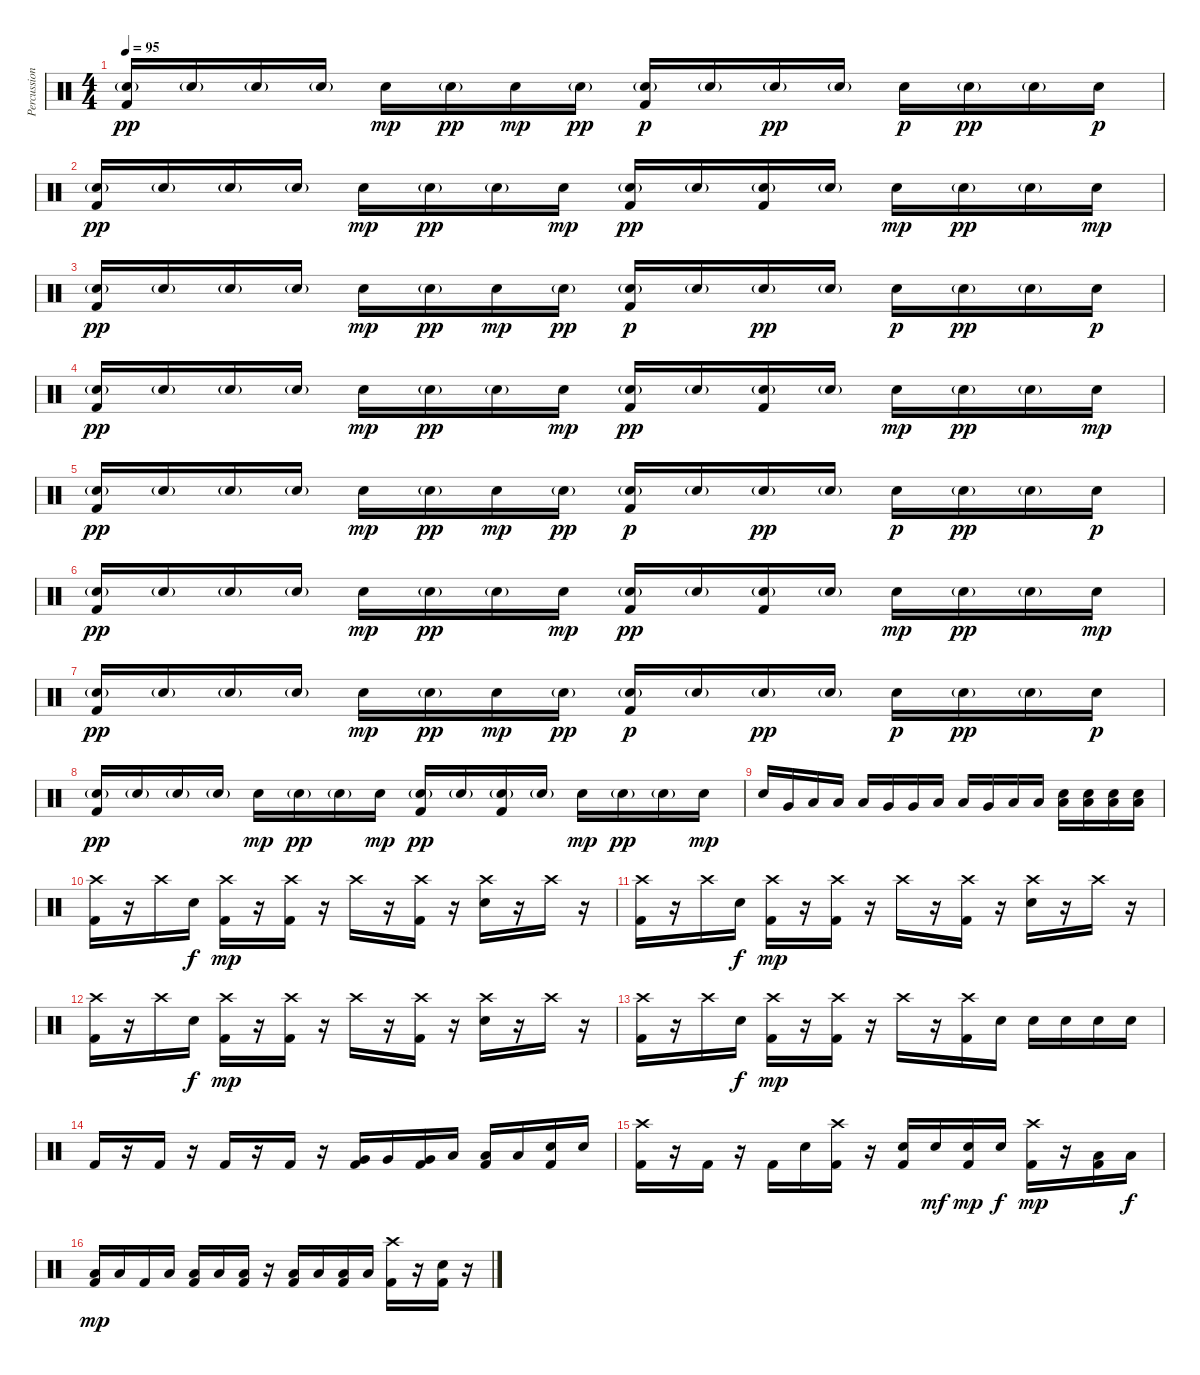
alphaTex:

\track ("Percussions" "Percussion") {instrument percussion}
\staff {score}
\articulation defaults
\ts (4 4)
\tempo 95
\clef neutral
\ks c
("Kick (hit) 2" "Snare (hit) 2"{g}).16{dy pp} "Snare (hit) 2"{g}.16 "Snare (hit) 2"{g}.16 "Snare (hit) 2"{g}.16 "Snare (hit) 2".16{dy mp} "Snare (hit) 2"{g}.16{dy pp} "Snare (hit) 2".16{dy mp} "Snare (hit) 2"{g}.16{dy pp} ("Kick (hit) 2" "Snare (hit) 2"{g}).16{dy p} "Snare (hit) 2"{g}.16 "Snare (hit) 2"{g}.16{dy pp} "Snare (hit) 2"{g}.16 "Snare (hit) 2".16{dy p} "Snare (hit) 2"{g}.16{dy pp} "Snare (hit) 2"{g}.16 "Snare (hit) 2".16{dy p} |
("Kick (hit) 2" "Snare (hit) 2"{g}).16{dy pp} "Snare (hit) 2"{g}.16 "Snare (hit) 2"{g}.16 "Snare (hit) 2"{g}.16 "Snare (hit) 2".16{dy mp} "Snare (hit) 2"{g}.16{dy pp} "Snare (hit) 2"{g}.16 "Snare (hit) 2".16{dy mp} ("Kick (hit) 2" "Snare (hit) 2"{g}).16{dy pp} "Snare (hit) 2"{g}.16 ("Kick (hit) 2" "Snare (hit) 2"{g}).16 "Snare (hit) 2"{g}.16 "Snare (hit) 2".16{dy mp} "Snare (hit) 2"{g}.16{dy pp} "Snare (hit) 2"{g}.16 "Snare (hit) 2".16{dy mp} |
("Kick (hit) 2" "Snare (hit) 2"{g}).16{dy pp} "Snare (hit) 2"{g}.16 "Snare (hit) 2"{g}.16 "Snare (hit) 2"{g}.16 "Snare (hit) 2".16{dy mp} "Snare (hit) 2"{g}.16{dy pp} "Snare (hit) 2".16{dy mp} "Snare (hit) 2"{g}.16{dy pp} ("Kick (hit) 2" "Snare (hit) 2"{g}).16{dy p} "Snare (hit) 2"{g}.16 "Snare (hit) 2"{g}.16{dy pp} "Snare (hit) 2"{g}.16 "Snare (hit) 2".16{dy p} "Snare (hit) 2"{g}.16{dy pp} "Snare (hit) 2"{g}.16 "Snare (hit) 2".16{dy p} |
("Kick (hit) 2" "Snare (hit) 2"{g}).16{dy pp} "Snare (hit) 2"{g}.16 "Snare (hit) 2"{g}.16 "Snare (hit) 2"{g}.16 "Snare (hit) 2".16{dy mp} "Snare (hit) 2"{g}.16{dy pp} "Snare (hit) 2"{g}.16 "Snare (hit) 2".16{dy mp} ("Kick (hit) 2" "Snare (hit) 2"{g}).16{dy pp} "Snare (hit) 2"{g}.16 ("Kick (hit) 2" "Snare (hit) 2"{g}).16 "Snare (hit) 2"{g}.16 "Snare (hit) 2".16{dy mp} "Snare (hit) 2"{g}.16{dy pp} "Snare (hit) 2"{g}.16 "Snare (hit) 2".16{dy mp} |
("Kick (hit) 2" "Snare (hit) 2"{g}).16{dy pp} "Snare (hit) 2"{g}.16 "Snare (hit) 2"{g}.16 "Snare (hit) 2"{g}.16 "Snare (hit) 2".16{dy mp} "Snare (hit) 2"{g}.16{dy pp} "Snare (hit) 2".16{dy mp} "Snare (hit) 2"{g}.16{dy pp} ("Kick (hit) 2" "Snare (hit) 2"{g}).16{dy p} "Snare (hit) 2"{g}.16 "Snare (hit) 2"{g}.16{dy pp} "Snare (hit) 2"{g}.16 "Snare (hit) 2".16{dy p} "Snare (hit) 2"{g}.16{dy pp} "Snare (hit) 2"{g}.16 "Snare (hit) 2".16{dy p} |
("Kick (hit) 2" "Snare (hit) 2"{g}).16{dy pp} "Snare (hit) 2"{g}.16 "Snare (hit) 2"{g}.16 "Snare (hit) 2"{g}.16 "Snare (hit) 2".16{dy mp} "Snare (hit) 2"{g}.16{dy pp} "Snare (hit) 2"{g}.16 "Snare (hit) 2".16{dy mp} ("Kick (hit) 2" "Snare (hit) 2"{g}).16{dy pp} "Snare (hit) 2"{g}.16 ("Kick (hit) 2" "Snare (hit) 2"{g}).16 "Snare (hit) 2"{g}.16 "Snare (hit) 2".16{dy mp} "Snare (hit) 2"{g}.16{dy pp} "Snare (hit) 2"{g}.16 "Snare (hit) 2".16{dy mp} |
("Kick (hit) 2" "Snare (hit) 2"{g}).16{dy pp} "Snare (hit) 2"{g}.16 "Snare (hit) 2"{g}.16 "Snare (hit) 2"{g}.16 "Snare (hit) 2".16{dy mp} "Snare (hit) 2"{g}.16{dy pp} "Snare (hit) 2".16{dy mp} "Snare (hit) 2"{g}.16{dy pp} ("Kick (hit) 2" "Snare (hit) 2"{g}).16{dy p} "Snare (hit) 2"{g}.16 "Snare (hit) 2"{g}.16{dy pp} "Snare (hit) 2"{g}.16 "Snare (hit) 2".16{dy p} "Snare (hit) 2"{g}.16{dy pp} "Snare (hit) 2"{g}.16 "Snare (hit) 2".16{dy p} |
("Kick (hit) 2" "Snare (hit) 2"{g}).16{dy pp} "Snare (hit) 2"{g}.16 "Snare (hit) 2"{g}.16 "Snare (hit) 2"{g}.16 "Snare (hit) 2".16{dy mp} "Snare (hit) 2"{g}.16{dy pp} "Snare (hit) 2"{g}.16 "Snare (hit) 2".16{dy mp} ("Kick (hit) 2" "Snare (hit) 2"{g}).16{dy pp} "Snare (hit) 2"{g}.16 ("Kick (hit) 2" "Snare (hit) 2"{g}).16 "Snare (hit) 2"{g}.16 "Snare (hit) 2".16{dy mp} "Snare (hit) 2"{g}.16{dy pp} "Snare (hit) 2"{g}.16 "Snare (hit) 2".16{dy mp} |
"Snare (hit) 2".16 "Very Low Tom (hit)".16 "Low Tom (hit)".16 "Low Tom (hit)".16 "Low Tom (hit)".16 "Very Low Tom (hit)".16 "Very Low Tom (hit)".16 "Low Tom (hit)".16 "Low Tom (hit)".16 "Very Low Tom (hit)".16 "Low Tom (hit)".16 "Low Tom (hit)".16 ("Low Tom (hit)" "Snare (hit) 2").16 ("Low Tom (hit)" "Snare (hit) 2").16 ("Low Tom (hit)" "Snare (hit) 2").16 ("Low Tom (hit)" "Snare (hit) 2").16 |
("Crash high (hit)" "Kick (hit) 2").16 r.16 "Crash high (hit)".16 "Snare (hit) 2".16{dy f} ("Crash high (hit)" "Kick (hit) 2").16{dy mp} r.16 ("Crash high (hit)" "Kick (hit) 2").16 r.16 "Crash high (hit)".16 r.16 ("Crash high (hit)" "Kick (hit) 2").16 r.16 ("Crash high (hit)" "Snare (hit) 2").16 r.16 "Crash high (hit)".16 r.16 |
("Crash high (hit)" "Kick (hit) 2").16 r.16 "Crash high (hit)".16 "Snare (hit) 2".16{dy f} ("Crash high (hit)" "Kick (hit) 2").16{dy mp} r.16 ("Crash high (hit)" "Kick (hit) 2").16 r.16 "Crash high (hit)".16 r.16 ("Crash high (hit)" "Kick (hit) 2").16 r.16 ("Crash high (hit)" "Snare (hit) 2").16 r.16 "Crash high (hit)".16 r.16 |
("Crash high (hit)" "Kick (hit) 2").16 r.16 "Crash high (hit)".16 "Snare (hit) 2".16{dy f} ("Crash high (hit)" "Kick (hit) 2").16{dy mp} r.16 ("Crash high (hit)" "Kick (hit) 2").16 r.16 "Crash high (hit)".16 r.16 ("Crash high (hit)" "Kick (hit) 2").16 r.16 ("Crash high (hit)" "Snare (hit) 2").16 r.16 "Crash high (hit)".16 r.16 |
("Crash high (hit)" "Kick (hit) 2").16 r.16 "Crash high (hit)".16 "Snare (hit) 2".16{dy f} ("Crash high (hit)" "Kick (hit) 2").16{dy mp} r.16 ("Crash high (hit)" "Kick (hit) 2").16 r.16 "Crash high (hit)".16 r.16 ("Crash high (hit)" "Kick (hit) 2").16 "Snare (hit) 2".16 "Snare (hit) 2".16 "Snare (hit) 2".16 "Snare (hit) 2".16 "Snare (hit) 2".16 |
"Kick (hit) 2".16 r.16 "Kick (hit) 2".16 r.16 "Kick (hit) 2".16 r.16 "Kick (hit) 2".16 r.16 ("Very Low Tom (hit)" "Kick (hit) 2").16 "Very Low Tom (hit)".16 ("Very Low Tom (hit)" "Kick (hit) 2").16 "Low Tom (hit)".16 ("Low Tom (hit)" "Kick (hit) 2").16 "Low Tom (hit)".16 ("Snare (hit) 2" "Kick (hit) 2").16 "Snare (hit) 2".16 |
("Crash high (hit)" "Kick (hit) 2").16 r.16 "Kick (hit) 2".16 r.16 "Kick (hit) 2".16 "Snare (hit) 2".16 ("Crash high (hit)" "Kick (hit) 2").16 r.16 ("Snare (hit) 2" "Kick (hit) 2").16 "Snare (hit) 2".16{dy mf} ("Snare (hit) 2" "Kick (hit) 2").16{dy mp} "Snare (hit) 2".16{dy f} ("Crash high (hit)" "Kick (hit) 2").16{dy mp} r.16 ("Low Tom (hit)" "Kick (hit) 2").16 "Low Tom (hit)".16{dy f} |
("Low Tom (hit)" "Kick (hit) 2").16{dy mp} "Low Tom (hit)".16 "Kick (hit) 2".16 "Low Tom (hit)".16 ("Low Tom (hit)" "Kick (hit) 2").16 "Low Tom (hit)".16 ("Low Tom (hit)" "Kick (hit) 2").16 r.16 ("Low Tom (hit)" "Kick (hit) 2").16 "Low Tom (hit)".16 ("Low Tom (hit)" "Kick (hit) 2").16 "Low Tom (hit)".16 ("Crash high (hit)" "Kick (hit) 2").16 r.16 ("Snare (hit) 2" "Kick (hit) 2").16 r.16
